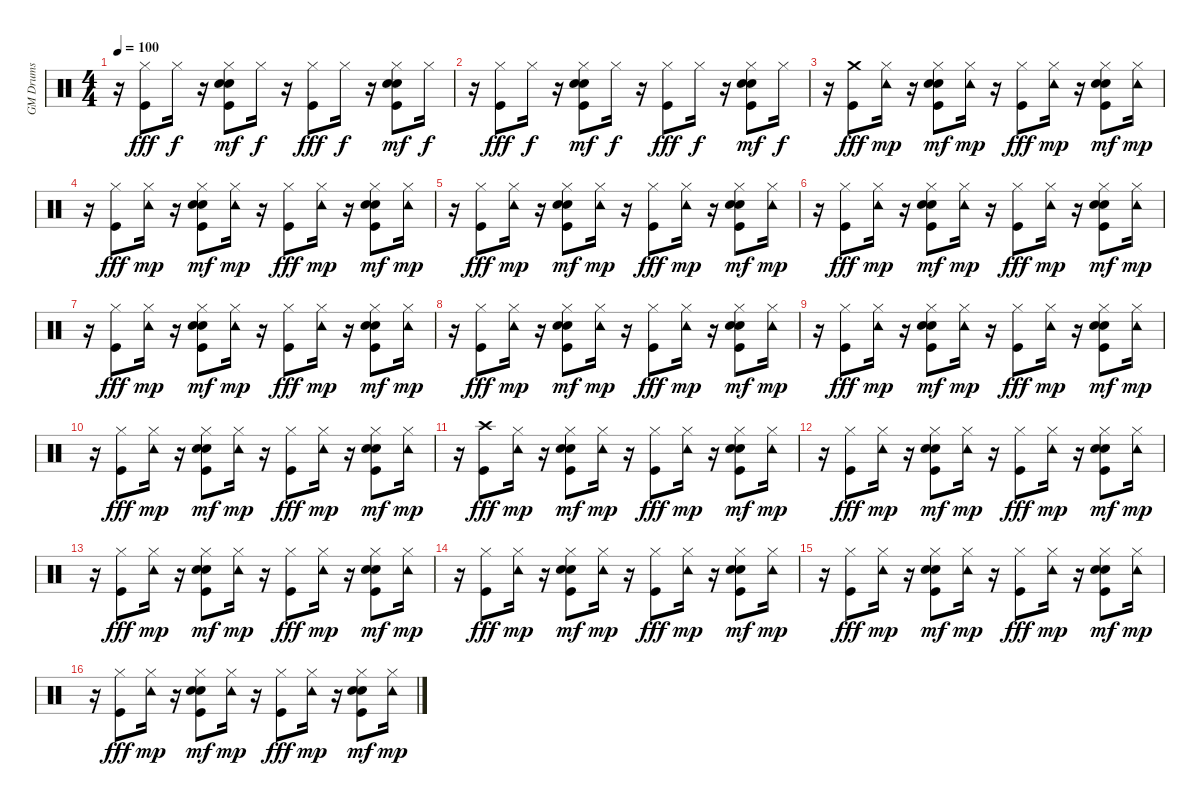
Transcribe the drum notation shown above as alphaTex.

\track ("GM Drums" "GM Drums") {instrument percussion}
\staff {score}
\articulation defaults
\ts (4 4)
\tempo 100
\clef neutral
\ks c
r.16{dy f} ("Kick (hit)" "Hi-Hat (closed)").8{dy fff} "Hi-Hat (closed)".16{dy f} r.16 ("Kick (hit)" "Snare (hit) 2" "Hand Clap (hit)" "Hi-Hat (closed)").8{dy mf} "Hi-Hat (closed)".16{dy f} r.16 ("Kick (hit)" "Hi-Hat (closed)").8{dy fff} "Hi-Hat (closed)".16{dy f} r.16 ("Kick (hit)" "Snare (hit) 2" "Hand Clap (hit)" "Hi-Hat (closed)").8{dy mf} "Hi-Hat (closed)".16{dy f} |
r.16 ("Kick (hit)" "Hi-Hat (closed)").8{dy fff} "Hi-Hat (closed)".16{dy f} r.16 ("Kick (hit)" "Snare (hit) 2" "Hand Clap (hit)" "Hi-Hat (closed)").8{dy mf} "Hi-Hat (closed)".16{dy f} r.16 ("Kick (hit)" "Hi-Hat (closed)").8{dy fff} "Hi-Hat (closed)".16{dy f} r.16 ("Kick (hit)" "Snare (hit) 2" "Hand Clap (hit)" "Hi-Hat (closed)").8{dy mf} "Hi-Hat (closed)".16{dy f} |
r.16 ("Kick (hit)" "Crash medium (hit)").8{dy fff} ("Hi-Hat (closed)" "Tambourine (hit)").16{dy mp} r.16 ("Kick (hit)" "Snare (hit) 2" "Hand Clap (hit)" "Hi-Hat (closed)").8{dy mf} ("Hi-Hat (closed)" "Tambourine (hit)").16{dy mp} r.16 ("Kick (hit)" "Hi-Hat (closed)").8{dy fff} ("Hi-Hat (closed)" "Tambourine (hit)").16{dy mp} r.16 ("Kick (hit)" "Snare (hit) 2" "Hand Clap (hit)" "Hi-Hat (closed)").8{dy mf} ("Hi-Hat (closed)" "Tambourine (hit)").16{dy mp} |
r.16 ("Kick (hit)" "Hi-Hat (closed)").8{dy fff} ("Hi-Hat (closed)" "Tambourine (hit)").16{dy mp} r.16 ("Kick (hit)" "Snare (hit) 2" "Hand Clap (hit)" "Hi-Hat (closed)").8{dy mf} ("Hi-Hat (closed)" "Tambourine (hit)").16{dy mp} r.16 ("Kick (hit)" "Hi-Hat (closed)").8{dy fff} ("Hi-Hat (closed)" "Tambourine (hit)").16{dy mp} r.16 ("Kick (hit)" "Snare (hit) 2" "Hand Clap (hit)" "Hi-Hat (closed)").8{dy mf} ("Hi-Hat (closed)" "Tambourine (hit)").16{dy mp} |
r.16 ("Kick (hit)" "Hi-Hat (closed)").8{dy fff} ("Hi-Hat (closed)" "Tambourine (hit)").16{dy mp} r.16 ("Kick (hit)" "Snare (hit) 2" "Hand Clap (hit)" "Hi-Hat (closed)").8{dy mf} ("Hi-Hat (closed)" "Tambourine (hit)").16{dy mp} r.16 ("Kick (hit)" "Hi-Hat (closed)").8{dy fff} ("Hi-Hat (closed)" "Tambourine (hit)").16{dy mp} r.16 ("Kick (hit)" "Snare (hit) 2" "Hand Clap (hit)" "Hi-Hat (closed)").8{dy mf} ("Hi-Hat (closed)" "Tambourine (hit)").16{dy mp} |
r.16 ("Kick (hit)" "Hi-Hat (closed)").8{dy fff} ("Hi-Hat (closed)" "Tambourine (hit)").16{dy mp} r.16 ("Kick (hit)" "Snare (hit) 2" "Hand Clap (hit)" "Hi-Hat (closed)").8{dy mf} ("Hi-Hat (closed)" "Tambourine (hit)").16{dy mp} r.16 ("Kick (hit)" "Hi-Hat (closed)").8{dy fff} ("Hi-Hat (closed)" "Tambourine (hit)").16{dy mp} r.16 ("Kick (hit)" "Snare (hit) 2" "Hand Clap (hit)" "Hi-Hat (closed)").8{dy mf} ("Hi-Hat (closed)" "Tambourine (hit)").16{dy mp} |
r.16 ("Kick (hit)" "Hi-Hat (closed)").8{dy fff} ("Hi-Hat (closed)" "Tambourine (hit)").16{dy mp} r.16 ("Kick (hit)" "Snare (hit) 2" "Hand Clap (hit)" "Hi-Hat (closed)").8{dy mf} ("Hi-Hat (closed)" "Tambourine (hit)").16{dy mp} r.16 ("Kick (hit)" "Hi-Hat (closed)").8{dy fff} ("Hi-Hat (closed)" "Tambourine (hit)").16{dy mp} r.16 ("Kick (hit)" "Snare (hit) 2" "Hand Clap (hit)" "Hi-Hat (closed)").8{dy mf} ("Hi-Hat (closed)" "Tambourine (hit)").16{dy mp} |
r.16 ("Kick (hit)" "Hi-Hat (closed)").8{dy fff} ("Hi-Hat (closed)" "Tambourine (hit)").16{dy mp} r.16 ("Kick (hit)" "Snare (hit) 2" "Hand Clap (hit)" "Hi-Hat (closed)").8{dy mf} ("Hi-Hat (closed)" "Tambourine (hit)").16{dy mp} r.16 ("Kick (hit)" "Hi-Hat (closed)").8{dy fff} ("Hi-Hat (closed)" "Tambourine (hit)").16{dy mp} r.16 ("Kick (hit)" "Snare (hit) 2" "Hand Clap (hit)" "Hi-Hat (closed)").8{dy mf} ("Hi-Hat (closed)" "Tambourine (hit)").16{dy mp} |
r.16 ("Kick (hit)" "Hi-Hat (closed)").8{dy fff} ("Hi-Hat (closed)" "Tambourine (hit)").16{dy mp} r.16 ("Kick (hit)" "Snare (hit) 2" "Hand Clap (hit)" "Hi-Hat (closed)").8{dy mf} ("Hi-Hat (closed)" "Tambourine (hit)").16{dy mp} r.16 ("Kick (hit)" "Hi-Hat (closed)").8{dy fff} ("Hi-Hat (closed)" "Tambourine (hit)").16{dy mp} r.16 ("Kick (hit)" "Snare (hit) 2" "Hand Clap (hit)" "Hi-Hat (closed)").8{dy mf} ("Hi-Hat (closed)" "Tambourine (hit)").16{dy mp} |
r.16 ("Kick (hit)" "Hi-Hat (closed)").8{dy fff} ("Hi-Hat (closed)" "Tambourine (hit)").16{dy mp} r.16 ("Kick (hit)" "Snare (hit) 2" "Hand Clap (hit)" "Hi-Hat (closed)").8{dy mf} ("Hi-Hat (closed)" "Tambourine (hit)").16{dy mp} r.16 ("Kick (hit)" "Hi-Hat (closed)").8{dy fff} ("Hi-Hat (closed)" "Tambourine (hit)").16{dy mp} r.16 ("Kick (hit)" "Snare (hit) 2" "Hand Clap (hit)" "Hi-Hat (closed)").8{dy mf} ("Hi-Hat (closed)" "Tambourine (hit)").16{dy mp} |
r.16 ("Kick (hit)" "Crash high (hit)").8{dy fff} ("Hi-Hat (closed)" "Tambourine (hit)").16{dy mp} r.16 ("Kick (hit)" "Snare (hit) 2" "Hand Clap (hit)" "Hi-Hat (closed)").8{dy mf} ("Hi-Hat (closed)" "Tambourine (hit)").16{dy mp} r.16 ("Kick (hit)" "Hi-Hat (closed)").8{dy fff} ("Hi-Hat (closed)" "Tambourine (hit)").16{dy mp} r.16 ("Kick (hit)" "Snare (hit) 2" "Hand Clap (hit)" "Hi-Hat (closed)").8{dy mf} ("Hi-Hat (closed)" "Tambourine (hit)").16{dy mp} |
r.16 ("Kick (hit)" "Hi-Hat (closed)").8{dy fff} ("Hi-Hat (closed)" "Tambourine (hit)").16{dy mp} r.16 ("Kick (hit)" "Snare (hit) 2" "Hand Clap (hit)" "Hi-Hat (closed)").8{dy mf} ("Hi-Hat (closed)" "Tambourine (hit)").16{dy mp} r.16 ("Kick (hit)" "Hi-Hat (closed)").8{dy fff} ("Hi-Hat (closed)" "Tambourine (hit)").16{dy mp} r.16 ("Kick (hit)" "Snare (hit) 2" "Hand Clap (hit)" "Hi-Hat (closed)").8{dy mf} ("Hi-Hat (closed)" "Tambourine (hit)").16{dy mp} |
r.16 ("Kick (hit)" "Hi-Hat (closed)").8{dy fff} ("Hi-Hat (closed)" "Tambourine (hit)").16{dy mp} r.16 ("Kick (hit)" "Snare (hit) 2" "Hand Clap (hit)" "Hi-Hat (closed)").8{dy mf} ("Hi-Hat (closed)" "Tambourine (hit)").16{dy mp} r.16 ("Kick (hit)" "Hi-Hat (closed)").8{dy fff} ("Hi-Hat (closed)" "Tambourine (hit)").16{dy mp} r.16 ("Kick (hit)" "Snare (hit) 2" "Hand Clap (hit)" "Hi-Hat (closed)").8{dy mf} ("Hi-Hat (closed)" "Tambourine (hit)").16{dy mp} |
r.16 ("Kick (hit)" "Hi-Hat (closed)").8{dy fff} ("Hi-Hat (closed)" "Tambourine (hit)").16{dy mp} r.16 ("Kick (hit)" "Snare (hit) 2" "Hand Clap (hit)" "Hi-Hat (closed)").8{dy mf} ("Hi-Hat (closed)" "Tambourine (hit)").16{dy mp} r.16 ("Kick (hit)" "Hi-Hat (closed)").8{dy fff} ("Hi-Hat (closed)" "Tambourine (hit)").16{dy mp} r.16 ("Kick (hit)" "Snare (hit) 2" "Hand Clap (hit)" "Hi-Hat (closed)").8{dy mf} ("Hi-Hat (closed)" "Tambourine (hit)").16{dy mp} |
r.16 ("Kick (hit)" "Hi-Hat (closed)").8{dy fff} ("Hi-Hat (closed)" "Tambourine (hit)").16{dy mp} r.16 ("Kick (hit)" "Snare (hit) 2" "Hand Clap (hit)" "Hi-Hat (closed)").8{dy mf} ("Hi-Hat (closed)" "Tambourine (hit)").16{dy mp} r.16 ("Kick (hit)" "Hi-Hat (closed)").8{dy fff} ("Hi-Hat (closed)" "Tambourine (hit)").16{dy mp} r.16 ("Kick (hit)" "Snare (hit) 2" "Hand Clap (hit)" "Hi-Hat (closed)").8{dy mf} ("Hi-Hat (closed)" "Tambourine (hit)").16{dy mp} |
r.16 ("Kick (hit)" "Hi-Hat (closed)").8{dy fff} ("Hi-Hat (closed)" "Tambourine (hit)").16{dy mp} r.16 ("Kick (hit)" "Snare (hit) 2" "Hand Clap (hit)" "Hi-Hat (closed)").8{dy mf} ("Hi-Hat (closed)" "Tambourine (hit)").16{dy mp} r.16 ("Kick (hit)" "Hi-Hat (closed)").8{dy fff} ("Hi-Hat (closed)" "Tambourine (hit)").16{dy mp} r.16 ("Kick (hit)" "Snare (hit) 2" "Hand Clap (hit)" "Hi-Hat (closed)").8{dy mf} ("Hi-Hat (closed)" "Tambourine (hit)").16{dy mp}
